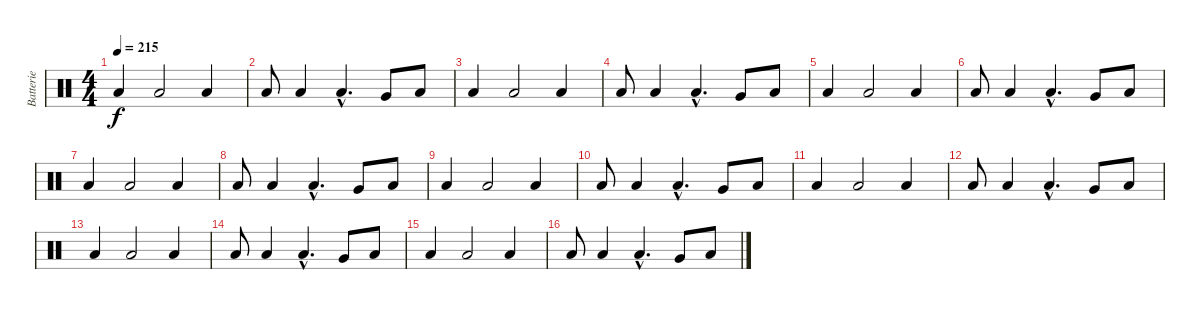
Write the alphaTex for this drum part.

\track ("Batterie" "Batterie") {instrument percussion}
\staff {score}
\articulation defaults
\ts (4 4)
\tempo 215
\clef neutral
\ks c "Low Floor Tom (hit)".4{dy f} "Low Tom (hit)".2 "Low Floor Tom (hit)".4
|
"Low Tom (hit)".8 "Low Tom (hit)".4 "Low Tom (hit)"{hac}.4{d} "Very Low Tom (hit)".8 "Low Tom (hit)".8 |
"Low Floor Tom (hit)".4 "Low Tom (hit)".2 "Low Floor Tom (hit)".4 |
"Low Tom (hit)".8 "Low Tom (hit)".4 "Low Tom (hit)"{hac}.4{d} "Very Low Tom (hit)".8 "Low Tom (hit)".8 |
"Low Floor Tom (hit)".4 "Low Tom (hit)".2 "Low Floor Tom (hit)".4 |
"Low Tom (hit)".8 "Low Tom (hit)".4 "Low Tom (hit)"{hac}.4{d} "Very Low Tom (hit)".8 "Low Tom (hit)".8 |
"Low Floor Tom (hit)".4 "Low Tom (hit)".2 "Low Floor Tom (hit)".4 |
"Low Tom (hit)".8 "Low Tom (hit)".4 "Low Tom (hit)"{hac}.4{d} "Very Low Tom (hit)".8 "Low Tom (hit)".8 |
"Low Floor Tom (hit)".4 "Low Tom (hit)".2 "Low Floor Tom (hit)".4 |
"Low Tom (hit)".8 "Low Tom (hit)".4 "Low Tom (hit)"{hac}.4{d} "Very Low Tom (hit)".8 "Low Tom (hit)".8 |
"Low Floor Tom (hit)".4 "Low Tom (hit)".2 "Low Floor Tom (hit)".4 |
"Low Tom (hit)".8 "Low Tom (hit)".4 "Low Tom (hit)"{hac}.4{d} "Very Low Tom (hit)".8 "Low Tom (hit)".8 |
"Low Floor Tom (hit)".4 "Low Tom (hit)".2 "Low Floor Tom (hit)".4 |
"Low Tom (hit)".8 "Low Tom (hit)".4 "Low Tom (hit)"{hac}.4{d} "Very Low Tom (hit)".8 "Low Tom (hit)".8 |
"Low Floor Tom (hit)".4 "Low Tom (hit)".2 "Low Floor Tom (hit)".4 |
"Low Tom (hit)".8 "Low Tom (hit)".4 "Low Tom (hit)"{hac}.4{d} "Very Low Tom (hit)".8 "Low Tom (hit)".8
